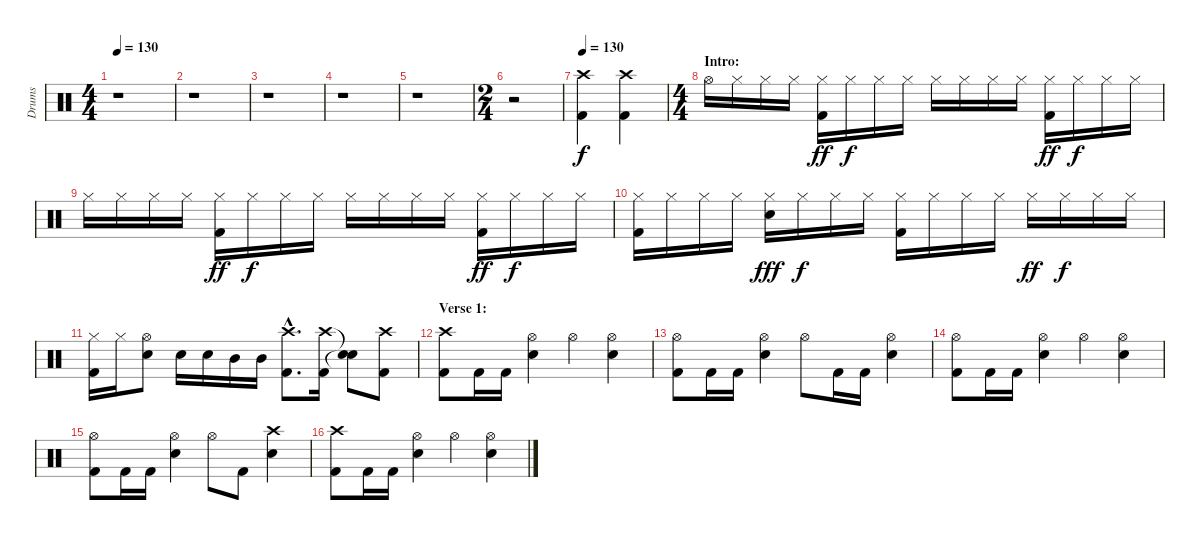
\track ("Drums" "Drums") {instrument percussion}
\staff {score}
\articulation defaults
\ts (4 4)
\tempo 130
\clef neutral
\ks c
r.1{dy f} |
r.1 |
r.1 |
r.1 |
r.1 |
\ts (2 4)
r.2 |
\tempo 130
("Crash high (hit)" "Kick (hit) 2").4 ("Crash high (hit)" "Kick (hit) 2").4 |
\ts (4 4)
\section ("" "Intro:")
"Hi-Hat (open)".16 "Hi-Hat (closed)".16 "Hi-Hat (closed)".16 "Hi-Hat (closed)".16 ("Hi-Hat (closed)" "Kick (hit) 2").16{dy ff} "Hi-Hat (closed)".16{dy f} "Hi-Hat (closed)".16 "Hi-Hat (closed)".16 "Hi-Hat (closed)".16 "Hi-Hat (closed)".16 "Hi-Hat (closed)".16 "Hi-Hat (closed)".16 ("Hi-Hat (closed)" "Kick (hit) 2").16{dy ff} "Hi-Hat (closed)".16{dy f} "Hi-Hat (closed)".16 "Hi-Hat (closed)".16 |
"Hi-Hat (closed)".16 "Hi-Hat (closed)".16 "Hi-Hat (closed)".16 "Hi-Hat (closed)".16 ("Hi-Hat (closed)" "Kick (hit) 2").16{dy ff} "Hi-Hat (closed)".16{dy f} "Hi-Hat (closed)".16 "Hi-Hat (closed)".16 "Hi-Hat (closed)".16 "Hi-Hat (closed)".16 "Hi-Hat (closed)".16 "Hi-Hat (closed)".16 ("Hi-Hat (closed)" "Kick (hit) 2").16{dy ff} "Hi-Hat (closed)".16{dy f} "Hi-Hat (closed)".16 "Hi-Hat (closed)".16 |
("Hi-Hat (closed)" "Kick (hit) 2").16 "Hi-Hat (closed)".16 "Hi-Hat (closed)".16 "Hi-Hat (closed)".16 ("Hi-Hat (closed)" "Electric Snare (hit)").16{dy fff} "Hi-Hat (closed)".16{dy f} "Hi-Hat (closed)".16 "Hi-Hat (closed)".16 ("Hi-Hat (closed)" "Kick (hit) 2").16 "Hi-Hat (closed)".16 "Hi-Hat (closed)".16 "Hi-Hat (closed)".16 "Hi-Hat (closed)".16{dy ff} "Hi-Hat (closed)".16{dy f} "Hi-Hat (closed)".16 "Hi-Hat (closed)".16 |
("Hi-Hat (closed)" "Kick (hit) 2").16 "Hi-Hat (closed)".16 ("Hi-Hat (open)" "Electric Snare (hit)").8 "Electric Snare (hit)".16 "Electric Snare (hit)".16 "Mid Tom (hit)".16 "Mid Tom (hit)".16 ("Crash high (hit)"{hac} "Kick (hit) 2"{hac}).8{d} ("Crash high (hit)" "Kick (hit) 2").16 ("Snare (hit)"{t} "Snare (hit)"{t}).8 ("Crash high (hit)" "Kick (hit) 2").8 |
\section ("" "Verse 1:")
("Crash high (hit)" "Kick (hit) 2").8 "Kick (hit) 2".16 "Kick (hit) 2".16 ("Hi-Hat (open)" "Electric Snare (hit)").4 "Hi-Hat (open)".4 ("Hi-Hat (open)" "Electric Snare (hit)").4 |
("Hi-Hat (open)" "Kick (hit) 2").8 "Kick (hit) 2".16 "Kick (hit) 2".16 ("Hi-Hat (open)" "Electric Snare (hit)").4 "Hi-Hat (open)".8 "Kick (hit) 2".16 "Kick (hit) 2".16 ("Hi-Hat (open)" "Electric Snare (hit)").4 |
("Hi-Hat (open)" "Kick (hit) 2").8 "Kick (hit) 2".16 "Kick (hit) 2".16 ("Hi-Hat (open)" "Electric Snare (hit)").4 "Hi-Hat (open)".4 ("Hi-Hat (open)" "Electric Snare (hit)").4 |
("Hi-Hat (open)" "Kick (hit) 2").8 "Kick (hit) 2".16 "Kick (hit) 2".16 ("Hi-Hat (open)" "Electric Snare (hit)").4 "Hi-Hat (open)".8 "Kick (hit) 2".8 ("Crash high (hit)" "Electric Snare (hit)").4 |
("Crash high (hit)" "Kick (hit) 2").8 "Kick (hit) 2".16 "Kick (hit) 2".16 ("Hi-Hat (open)" "Electric Snare (hit)").4 "Hi-Hat (open)".4 ("Hi-Hat (open)" "Electric Snare (hit)").4
